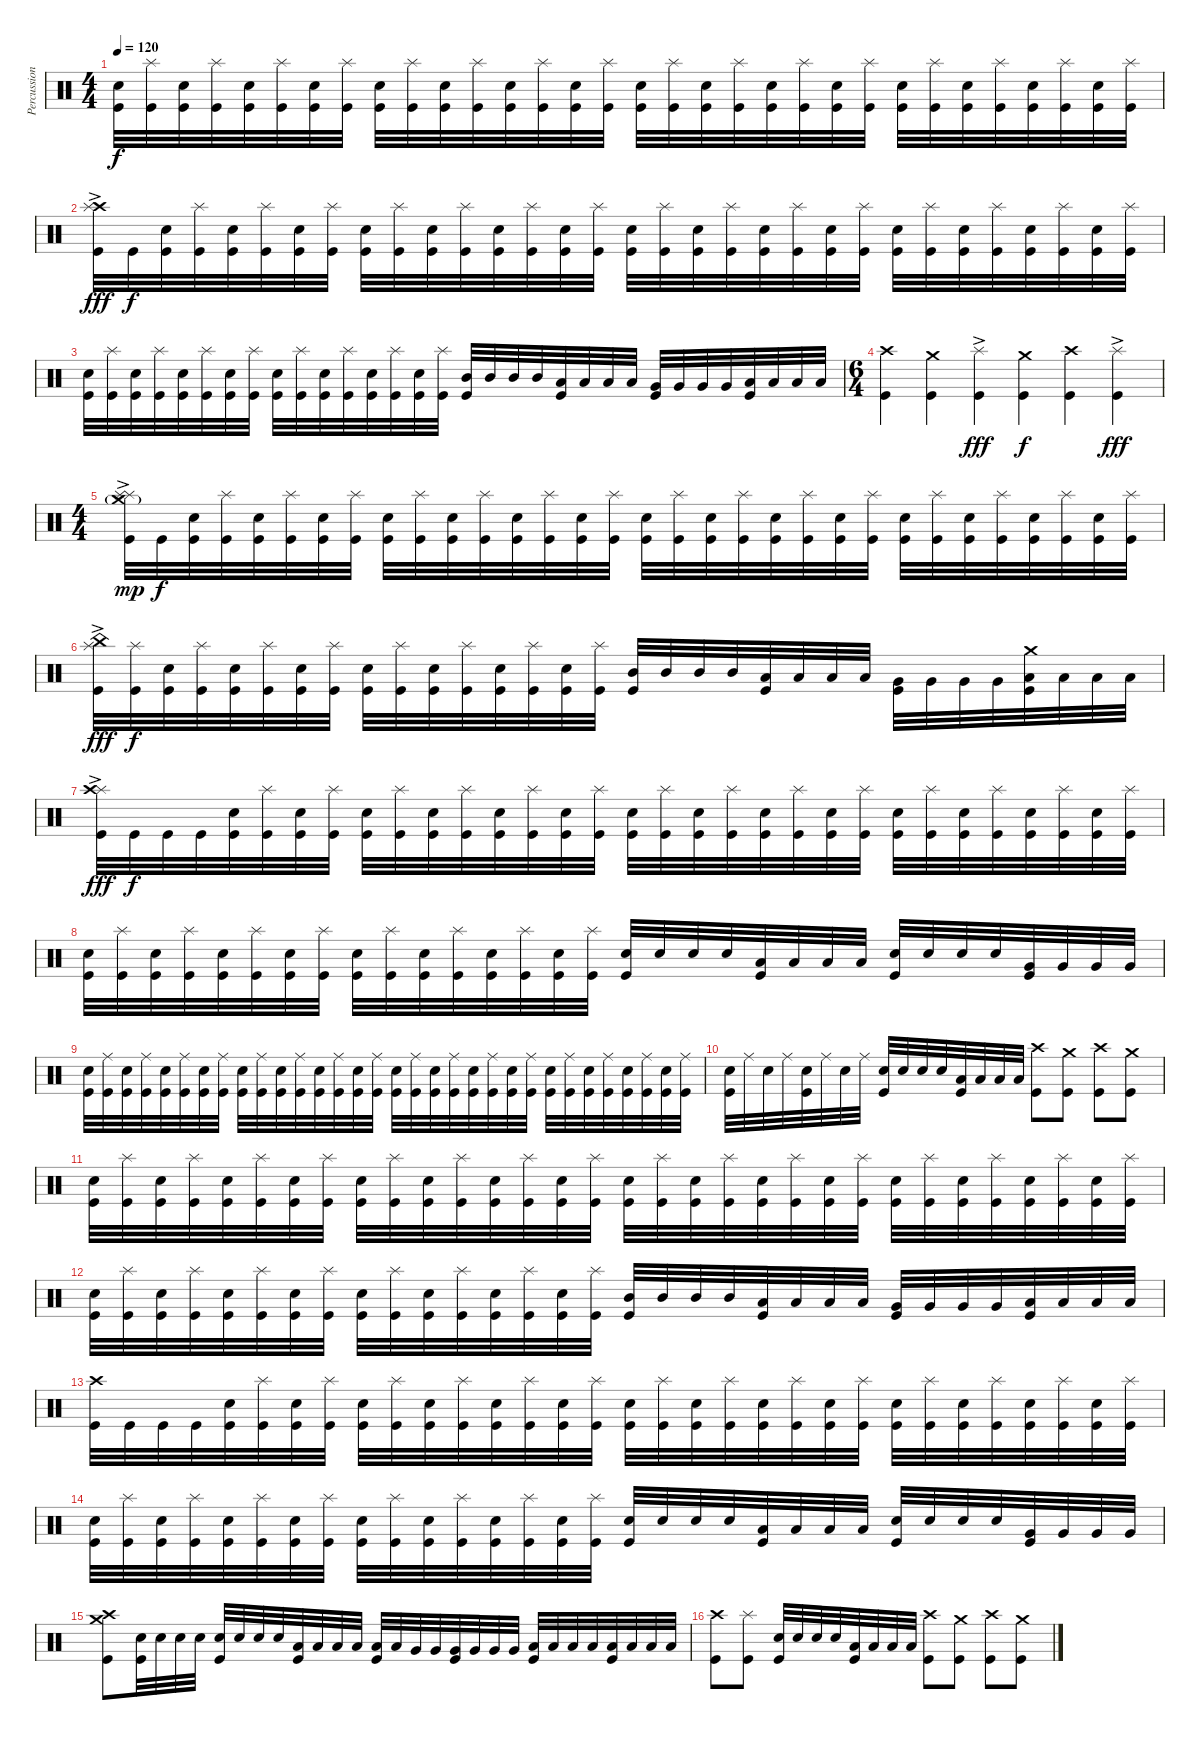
\track ("Percussion" "Percussion") {instrument percussion}
\staff {score}
\articulation defaults
\ts (4 4)
\tempo 120
\clef neutral
\ks c
("Electric Snare (hit)" "Kick (hit)").32{dy f} ("Splash (hit)" "Kick (hit)").32 ("Electric Snare (hit)" "Kick (hit)").32 ("Splash (hit)" "Kick (hit)").32 ("Electric Snare (hit)" "Kick (hit)").32 ("Splash (hit)" "Kick (hit)").32 ("Electric Snare (hit)" "Kick (hit)").32 ("Splash (hit)" "Kick (hit)").32 ("Electric Snare (hit)" "Kick (hit)").32 ("Splash (hit)" "Kick (hit)").32 ("Electric Snare (hit)" "Kick (hit)").32 ("Splash (hit)" "Kick (hit)").32 ("Electric Snare (hit)" "Kick (hit)").32 ("Splash (hit)" "Kick (hit)").32 ("Electric Snare (hit)" "Kick (hit)").32 ("Splash (hit)" "Kick (hit)").32 ("Electric Snare (hit)" "Kick (hit)").32 ("Splash (hit)" "Kick (hit)").32 ("Electric Snare (hit)" "Kick (hit)").32 ("Splash (hit)" "Kick (hit)").32 ("Electric Snare (hit)" "Kick (hit)").32 ("Splash (hit)" "Kick (hit)").32 ("Electric Snare (hit)" "Kick (hit)").32 ("Splash (hit)" "Kick (hit)").32 ("Electric Snare (hit)" "Kick (hit)").32 ("Splash (hit)" "Kick (hit)").32 ("Electric Snare (hit)" "Kick (hit)").32 ("Splash (hit)" "Kick (hit)").32 ("Electric Snare (hit)" "Kick (hit)").32 ("Splash (hit)" "Kick (hit)").32 ("Electric Snare (hit)" "Kick (hit)").32 ("Splash (hit)" "Kick (hit)").32 |
("Crash high (hit)" "Splash (hit)"{ac} "Kick (hit)").32{dy fff} "Kick (hit)".32{dy f} ("Electric Snare (hit)" "Kick (hit)").32 ("Splash (hit)" "Kick (hit)").32 ("Electric Snare (hit)" "Kick (hit)").32 ("Splash (hit)" "Kick (hit)").32 ("Electric Snare (hit)" "Kick (hit)").32 ("Splash (hit)" "Kick (hit)").32 ("Electric Snare (hit)" "Kick (hit)").32 ("Splash (hit)" "Kick (hit)").32 ("Electric Snare (hit)" "Kick (hit)").32 ("Splash (hit)" "Kick (hit)").32 ("Electric Snare (hit)" "Kick (hit)").32 ("Splash (hit)" "Kick (hit)").32 ("Electric Snare (hit)" "Kick (hit)").32 ("Splash (hit)" "Kick (hit)").32 ("Electric Snare (hit)" "Kick (hit)").32 ("Splash (hit)" "Kick (hit)").32 ("Electric Snare (hit)" "Kick (hit)").32 ("Splash (hit)" "Kick (hit)").32 ("Electric Snare (hit)" "Kick (hit)").32 ("Splash (hit)" "Kick (hit)").32 ("Electric Snare (hit)" "Kick (hit)").32 ("Splash (hit)" "Kick (hit)").32 ("Electric Snare (hit)" "Kick (hit)").32 ("Splash (hit)" "Kick (hit)").32 ("Electric Snare (hit)" "Kick (hit)").32 ("Splash (hit)" "Kick (hit)").32 ("Electric Snare (hit)" "Kick (hit)").32 ("Splash (hit)" "Kick (hit)").32 ("Electric Snare (hit)" "Kick (hit)").32 ("Splash (hit)" "Kick (hit)").32 |
("Electric Snare (hit)" "Kick (hit)").32 ("Splash (hit)" "Kick (hit)").32 ("Electric Snare (hit)" "Kick (hit)").32 ("Splash (hit)" "Kick (hit)").32 ("Electric Snare (hit)" "Kick (hit)").32 ("Splash (hit)" "Kick (hit)").32 ("Electric Snare (hit)" "Kick (hit)").32 ("Splash (hit)" "Kick (hit)").32 ("Electric Snare (hit)" "Kick (hit)").32 ("Splash (hit)" "Kick (hit)").32 ("Electric Snare (hit)" "Kick (hit)").32 ("Splash (hit)" "Kick (hit)").32 ("Electric Snare (hit)" "Kick (hit)").32 ("Splash (hit)" "Kick (hit)").32 ("Electric Snare (hit)" "Kick (hit)").32 ("Splash (hit)" "Kick (hit)").32 ("Mid Tom (hit)" "Kick (hit)").32 "Mid Tom (hit)".32 "Mid Tom (hit)".32 "Mid Tom (hit)".32 ("Low Tom (hit)" "Kick (hit)").32 "Low Tom (hit)".32 "Low Tom (hit)".32 "Low Tom (hit)".32 ("Very Low Tom (hit)" "Kick (hit)").32 "Very Low Tom (hit)".32 "Very Low Tom (hit)".32 "Very Low Tom (hit)".32 ("Low Floor Tom (hit)" "Kick (hit)").32 "Low Floor Tom (hit)".32 "Low Floor Tom (hit)".32 "Low Floor Tom (hit)".32 |
\ts (6 4)
("Crash high (hit)" "Kick (hit)").4 ("Crash medium (hit)" "Kick (hit)").4 ("Splash (hit)"{ac} "Kick (hit)").4{dy fff} ("Crash medium (hit)" "Kick (hit)").4{dy f} ("Crash high (hit)" "Kick (hit)").4 ("Splash (hit)"{ac} "Kick (hit)").4{dy fff} |
\ts (4 4)
("Splash (hit)" "Splash (hit)"{ac} "Crash medium (hit)"{g} "Kick (hit)").32{dy mp} "Kick (hit)".32{dy f} ("Electric Snare (hit)" "Kick (hit)").32 ("Splash (hit)" "Kick (hit)").32 ("Electric Snare (hit)" "Kick (hit)").32 ("Splash (hit)" "Kick (hit)").32 ("Electric Snare (hit)" "Kick (hit)").32 ("Splash (hit)" "Kick (hit)").32 ("Electric Snare (hit)" "Kick (hit)").32 ("Splash (hit)" "Kick (hit)").32 ("Electric Snare (hit)" "Kick (hit)").32 ("Splash (hit)" "Kick (hit)").32 ("Electric Snare (hit)" "Kick (hit)").32 ("Splash (hit)" "Kick (hit)").32 ("Electric Snare (hit)" "Kick (hit)").32 ("Splash (hit)" "Kick (hit)").32 ("Electric Snare (hit)" "Kick (hit)").32 ("Splash (hit)" "Kick (hit)").32 ("Electric Snare (hit)" "Kick (hit)").32 ("Splash (hit)" "Kick (hit)").32 ("Electric Snare (hit)" "Kick (hit)").32 ("Splash (hit)" "Kick (hit)").32 ("Electric Snare (hit)" "Kick (hit)").32 ("Splash (hit)" "Kick (hit)").32 ("Electric Snare (hit)" "Kick (hit)").32 ("Splash (hit)" "Kick (hit)").32 ("Electric Snare (hit)" "Kick (hit)").32 ("Splash (hit)" "Kick (hit)").32 ("Electric Snare (hit)" "Kick (hit)").32 ("Splash (hit)" "Kick (hit)").32 ("Electric Snare (hit)" "Kick (hit)").32 ("Splash (hit)" "Kick (hit)").32 |
("Splash (hit)"{ac} "China (hit)" "Kick (hit)").32{dy fff} ("Splash (hit)" "Kick (hit)").32{dy f} ("Electric Snare (hit)" "Kick (hit)").32 ("Splash (hit)" "Kick (hit)").32 ("Electric Snare (hit)" "Kick (hit)").32 ("Splash (hit)" "Kick (hit)").32 ("Electric Snare (hit)" "Kick (hit)").32 ("Splash (hit)" "Kick (hit)").32 ("Electric Snare (hit)" "Kick (hit)").32 ("Splash (hit)" "Kick (hit)").32 ("Electric Snare (hit)" "Kick (hit)").32 ("Splash (hit)" "Kick (hit)").32 ("Electric Snare (hit)" "Kick (hit)").32 ("Splash (hit)" "Kick (hit)").32 ("Electric Snare (hit)" "Kick (hit)").32 ("Splash (hit)" "Kick (hit)").32 ("Mid Tom (hit)" "Kick (hit)").32 "Mid Tom (hit)".32 "Mid Tom (hit)".32 "Mid Tom (hit)".32 ("Low Tom (hit)" "Kick (hit)").32 "Low Tom (hit)".32 "Low Tom (hit)".32 "Low Tom (hit)".32 ("Very Low Tom (hit)" "Kick (hit)").32 "Very Low Tom (hit)".32 "Very Low Tom (hit)".32 "Very Low Tom (hit)".32 ("Crash medium (hit)" "Low Floor Tom (hit)" "Kick (hit)").32 "Low Floor Tom (hit)".32 "Low Floor Tom (hit)".32 "Low Floor Tom (hit)".32 |
("Splash (hit)"{ac} "Crash high (hit)" "Kick (hit)").32{dy fff} "Kick (hit)".32{dy f} "Kick (hit)".32 "Kick (hit)".32 ("Electric Snare (hit)" "Kick (hit)").32 ("Splash (hit)" "Kick (hit)").32 ("Electric Snare (hit)" "Kick (hit)").32 ("Splash (hit)" "Kick (hit)").32 ("Electric Snare (hit)" "Kick (hit)").32 ("Splash (hit)" "Kick (hit)").32 ("Electric Snare (hit)" "Kick (hit)").32 ("Splash (hit)" "Kick (hit)").32 ("Electric Snare (hit)" "Kick (hit)").32 ("Splash (hit)" "Kick (hit)").32 ("Electric Snare (hit)" "Kick (hit)").32 ("Splash (hit)" "Kick (hit)").32 ("Electric Snare (hit)" "Kick (hit)").32 ("Splash (hit)" "Kick (hit)").32 ("Electric Snare (hit)" "Kick (hit)").32 ("Splash (hit)" "Kick (hit)").32 ("Electric Snare (hit)" "Kick (hit)").32 ("Splash (hit)" "Kick (hit)").32 ("Electric Snare (hit)" "Kick (hit)").32 ("Splash (hit)" "Kick (hit)").32 ("Electric Snare (hit)" "Kick (hit)").32 ("Splash (hit)" "Kick (hit)").32 ("Electric Snare (hit)" "Kick (hit)").32 ("Splash (hit)" "Kick (hit)").32 ("Electric Snare (hit)" "Kick (hit)").32 ("Splash (hit)" "Kick (hit)").32 ("Electric Snare (hit)" "Kick (hit)").32 ("Splash (hit)" "Kick (hit)").32 |
("Electric Snare (hit)" "Kick (hit)").32 ("Splash (hit)" "Kick (hit)").32 ("Electric Snare (hit)" "Kick (hit)").32 ("Splash (hit)" "Kick (hit)").32 ("Electric Snare (hit)" "Kick (hit)").32 ("Splash (hit)" "Kick (hit)").32 ("Electric Snare (hit)" "Kick (hit)").32 ("Splash (hit)" "Kick (hit)").32 ("Electric Snare (hit)" "Kick (hit)").32 ("Splash (hit)" "Kick (hit)").32 ("Electric Snare (hit)" "Kick (hit)").32 ("Splash (hit)" "Kick (hit)").32 ("Electric Snare (hit)" "Kick (hit)").32 ("Splash (hit)" "Kick (hit)").32 ("Electric Snare (hit)" "Kick (hit)").32 ("Splash (hit)" "Kick (hit)").32 ("Electric Snare (hit)" "Kick (hit)").32 "Electric Snare (hit)".32 "Electric Snare (hit)".32 "Electric Snare (hit)".32 ("Low Tom (hit)" "Kick (hit)").32 "Low Tom (hit)".32 "Low Tom (hit)".32 "Low Tom (hit)".32 ("Electric Snare (hit)" "Kick (hit)").32 "Electric Snare (hit)".32 "Electric Snare (hit)".32 "Electric Snare (hit)".32 ("Very Low Tom (hit)" "Kick (hit)").32 "Very Low Tom (hit)".32 "Very Low Tom (hit)".32 "Very Low Tom (hit)".32 |
("Electric Snare (hit)" "Kick (hit)").32 ("Ride (middle)" "Kick (hit)").32 ("Electric Snare (hit)" "Kick (hit)").32 ("Ride (middle)" "Kick (hit)").32 ("Electric Snare (hit)" "Kick (hit)").32 ("Ride (middle)" "Kick (hit)").32 ("Electric Snare (hit)" "Kick (hit)").32 ("Ride (middle)" "Kick (hit)").32 ("Electric Snare (hit)" "Kick (hit)").32 ("Ride (middle)" "Kick (hit)").32 ("Electric Snare (hit)" "Kick (hit)").32 ("Ride (middle)" "Kick (hit)").32 ("Electric Snare (hit)" "Kick (hit)").32 ("Ride (middle)" "Kick (hit)").32 ("Electric Snare (hit)" "Kick (hit)").32 ("Ride (middle)" "Kick (hit)").32 ("Electric Snare (hit)" "Kick (hit)").32 ("Ride (middle)" "Kick (hit)").32 ("Electric Snare (hit)" "Kick (hit)").32 ("Ride (middle)" "Kick (hit)").32 ("Electric Snare (hit)" "Kick (hit)").32 ("Ride (middle)" "Kick (hit)").32 ("Electric Snare (hit)" "Kick (hit)").32 ("Ride (middle)" "Kick (hit)").32 ("Electric Snare (hit)" "Kick (hit)").32 ("Ride (middle)" "Kick (hit)").32 ("Electric Snare (hit)" "Kick (hit)").32 ("Ride (middle)" "Kick (hit)").32 ("Electric Snare (hit)" "Kick (hit)").32 ("Ride (middle)" "Kick (hit)").32 ("Electric Snare (hit)" "Kick (hit)").32 ("Ride (middle)" "Kick (hit)").32 |
("Electric Snare (hit)" "Kick (hit)").32 "Ride (middle)".32 "Electric Snare (hit)".32 "Ride (middle)".32 ("Electric Snare (hit)" "Kick (hit)").32 "Ride (middle)".32 "Electric Snare (hit)".32 "Ride (middle)".32 ("Electric Snare (hit)" "Kick (hit)").32 "Electric Snare (hit)".32 "Electric Snare (hit)".32 "Electric Snare (hit)".32 ("Low Tom (hit)" "Kick (hit)").32 "Low Tom (hit)".32 "Low Tom (hit)".32 "Low Tom (hit)".32 ("Crash high (hit)" "Kick (hit)").8 ("Crash medium (hit)" "Kick (hit)").8 ("Crash high (hit)" "Kick (hit)").8 ("Crash medium (hit)" "Kick (hit)").8 |
("Electric Snare (hit)" "Kick (hit)").32 ("Splash (hit)" "Kick (hit)").32 ("Electric Snare (hit)" "Kick (hit)").32 ("Splash (hit)" "Kick (hit)").32 ("Electric Snare (hit)" "Kick (hit)").32 ("Splash (hit)" "Kick (hit)").32 ("Electric Snare (hit)" "Kick (hit)").32 ("Splash (hit)" "Kick (hit)").32 ("Electric Snare (hit)" "Kick (hit)").32 ("Splash (hit)" "Kick (hit)").32 ("Electric Snare (hit)" "Kick (hit)").32 ("Splash (hit)" "Kick (hit)").32 ("Electric Snare (hit)" "Kick (hit)").32 ("Splash (hit)" "Kick (hit)").32 ("Electric Snare (hit)" "Kick (hit)").32 ("Splash (hit)" "Kick (hit)").32 ("Electric Snare (hit)" "Kick (hit)").32 ("Splash (hit)" "Kick (hit)").32 ("Electric Snare (hit)" "Kick (hit)").32 ("Splash (hit)" "Kick (hit)").32 ("Electric Snare (hit)" "Kick (hit)").32 ("Splash (hit)" "Kick (hit)").32 ("Electric Snare (hit)" "Kick (hit)").32 ("Splash (hit)" "Kick (hit)").32 ("Electric Snare (hit)" "Kick (hit)").32 ("Splash (hit)" "Kick (hit)").32 ("Electric Snare (hit)" "Kick (hit)").32 ("Splash (hit)" "Kick (hit)").32 ("Electric Snare (hit)" "Kick (hit)").32 ("Splash (hit)" "Kick (hit)").32 ("Electric Snare (hit)" "Kick (hit)").32 ("Splash (hit)" "Kick (hit)").32 |
("Electric Snare (hit)" "Kick (hit)").32 ("Splash (hit)" "Kick (hit)").32 ("Electric Snare (hit)" "Kick (hit)").32 ("Splash (hit)" "Kick (hit)").32 ("Electric Snare (hit)" "Kick (hit)").32 ("Splash (hit)" "Kick (hit)").32 ("Electric Snare (hit)" "Kick (hit)").32 ("Splash (hit)" "Kick (hit)").32 ("Electric Snare (hit)" "Kick (hit)").32 ("Splash (hit)" "Kick (hit)").32 ("Electric Snare (hit)" "Kick (hit)").32 ("Splash (hit)" "Kick (hit)").32 ("Electric Snare (hit)" "Kick (hit)").32 ("Splash (hit)" "Kick (hit)").32 ("Electric Snare (hit)" "Kick (hit)").32 ("Splash (hit)" "Kick (hit)").32 ("Mid Tom (hit)" "Kick (hit)").32 "Mid Tom (hit)".32 "Mid Tom (hit)".32 "Mid Tom (hit)".32 ("Low Tom (hit)" "Kick (hit)").32 "Low Tom (hit)".32 "Low Tom (hit)".32 "Low Tom (hit)".32 ("Very Low Tom (hit)" "Kick (hit)").32 "Very Low Tom (hit)".32 "Very Low Tom (hit)".32 "Very Low Tom (hit)".32 ("Low Floor Tom (hit)" "Kick (hit)").32 "Low Floor Tom (hit)".32 "Low Floor Tom (hit)".32 "Low Floor Tom (hit)".32 |
("Crash high (hit)" "Kick (hit)").32 "Kick (hit)".32 "Kick (hit)".32 "Kick (hit)".32 ("Electric Snare (hit)" "Kick (hit)").32 ("Splash (hit)" "Kick (hit)").32 ("Electric Snare (hit)" "Kick (hit)").32 ("Splash (hit)" "Kick (hit)").32 ("Electric Snare (hit)" "Kick (hit)").32 ("Splash (hit)" "Kick (hit)").32 ("Electric Snare (hit)" "Kick (hit)").32 ("Splash (hit)" "Kick (hit)").32 ("Electric Snare (hit)" "Kick (hit)").32 ("Splash (hit)" "Kick (hit)").32 ("Electric Snare (hit)" "Kick (hit)").32 ("Splash (hit)" "Kick (hit)").32 ("Electric Snare (hit)" "Kick (hit)").32 ("Splash (hit)" "Kick (hit)").32 ("Electric Snare (hit)" "Kick (hit)").32 ("Splash (hit)" "Kick (hit)").32 ("Electric Snare (hit)" "Kick (hit)").32 ("Splash (hit)" "Kick (hit)").32 ("Electric Snare (hit)" "Kick (hit)").32 ("Splash (hit)" "Kick (hit)").32 ("Electric Snare (hit)" "Kick (hit)").32 ("Splash (hit)" "Kick (hit)").32 ("Electric Snare (hit)" "Kick (hit)").32 ("Splash (hit)" "Kick (hit)").32 ("Electric Snare (hit)" "Kick (hit)").32 ("Splash (hit)" "Kick (hit)").32 ("Electric Snare (hit)" "Kick (hit)").32 ("Splash (hit)" "Kick (hit)").32 |
("Electric Snare (hit)" "Kick (hit)").32 ("Splash (hit)" "Kick (hit)").32 ("Electric Snare (hit)" "Kick (hit)").32 ("Splash (hit)" "Kick (hit)").32 ("Electric Snare (hit)" "Kick (hit)").32 ("Splash (hit)" "Kick (hit)").32 ("Electric Snare (hit)" "Kick (hit)").32 ("Splash (hit)" "Kick (hit)").32 ("Electric Snare (hit)" "Kick (hit)").32 ("Splash (hit)" "Kick (hit)").32 ("Electric Snare (hit)" "Kick (hit)").32 ("Splash (hit)" "Kick (hit)").32 ("Electric Snare (hit)" "Kick (hit)").32 ("Splash (hit)" "Kick (hit)").32 ("Electric Snare (hit)" "Kick (hit)").32 ("Splash (hit)" "Kick (hit)").32 ("Electric Snare (hit)" "Kick (hit)").32 "Electric Snare (hit)".32 "Electric Snare (hit)".32 "Electric Snare (hit)".32 ("Low Tom (hit)" "Kick (hit)").32 "Low Tom (hit)".32 "Low Tom (hit)".32 "Low Tom (hit)".32 ("Electric Snare (hit)" "Kick (hit)").32 "Electric Snare (hit)".32 "Electric Snare (hit)".32 "Electric Snare (hit)".32 ("Very Low Tom (hit)" "Kick (hit)").32 "Very Low Tom (hit)".32 "Very Low Tom (hit)".32 "Very Low Tom (hit)".32 |
("Crash high (hit)" "Crash medium (hit)" "Kick (hit)").8 ("Electric Snare (hit)" "Kick (hit)").32 "Electric Snare (hit)".32 "Electric Snare (hit)".32 "Electric Snare (hit)".32 ("Electric Snare (hit)" "Kick (hit)").32 "Electric Snare (hit)".32 "Electric Snare (hit)".32 "Electric Snare (hit)".32 ("Low Tom (hit)" "Kick (hit)").32 "Low Tom (hit)".32 "Low Tom (hit)".32 "Low Tom (hit)".32 ("Low Tom (hit)" "Kick (hit)").32 "Low Tom (hit)".32 "Very Low Tom (hit)".32 "Very Low Tom (hit)".32 ("Very Low Tom (hit)" "Kick (hit)").32 "Very Low Tom (hit)".32 "Very Low Tom (hit)".32 "Very Low Tom (hit)".32 ("Low Floor Tom (hit)" "Kick (hit)").32 "Low Floor Tom (hit)".32 "Low Floor Tom (hit)".32 "Low Floor Tom (hit)".32 ("Low Floor Tom (hit)" "Kick (hit)").32 "Low Floor Tom (hit)".32 "Low Floor Tom (hit)".32 "Low Floor Tom (hit)".32 |
("Crash high (hit)" "Kick (hit)").8 ("Splash (hit)" "Kick (hit)").8 ("Electric Snare (hit)" "Kick (hit)").32 "Electric Snare (hit)".32 "Electric Snare (hit)".32 "Electric Snare (hit)".32 ("Low Tom (hit)" "Kick (hit)").32 "Low Tom (hit)".32 "Low Tom (hit)".32 "Low Tom (hit)".32 ("Crash high (hit)" "Kick (hit)").8 ("Crash medium (hit)" "Kick (hit)").8 ("Crash high (hit)" "Kick (hit)").8 ("Crash medium (hit)" "Kick (hit)").8
